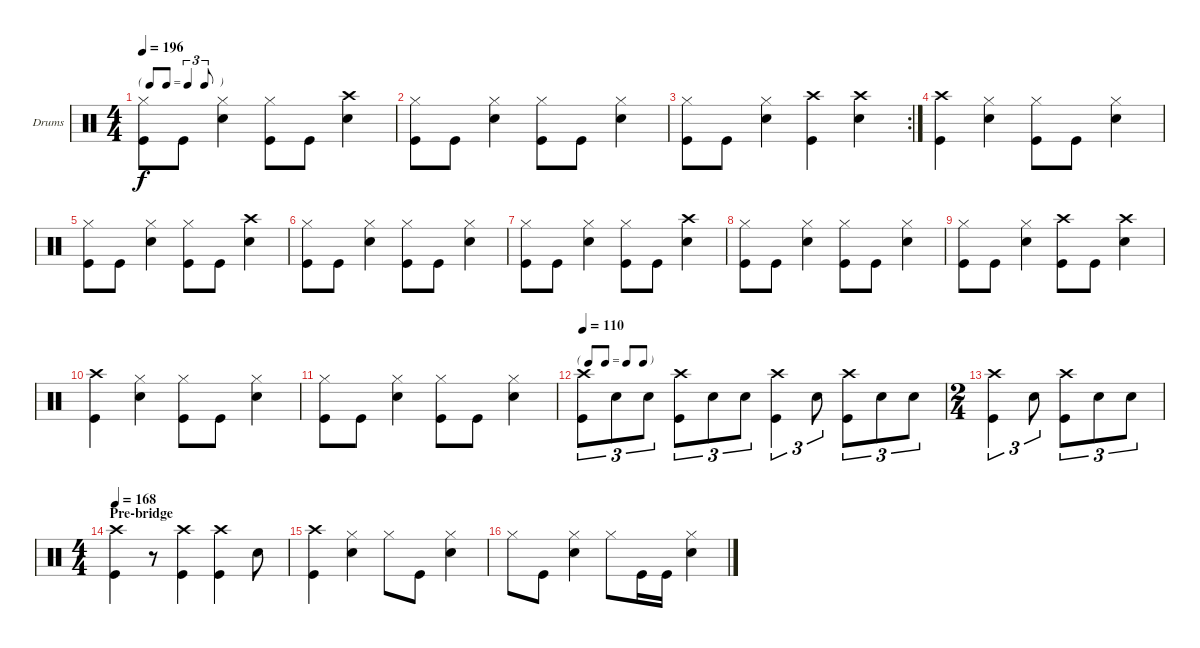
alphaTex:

\bracketExtendMode groupsimilarinstruments
\firstSystemTrackNameOrientation horizontal
\otherSystemsTrackNameOrientation horizontal
\track ("Drums" "Drums") {instrument percussion}
\staff {score}
\articulation defaults
\ts (4 4)
\tf triplet8th
\tempo 196
\clef neutral
\ks c
("Hi-Hat (closed)" "Kick (hit)").8{dy f} "Kick (hit)".8 ("Snare (hit) 2" "Hi-Hat (closed)").4 ("Hi-Hat (closed)" "Kick (hit)").8 "Kick (hit)".8 ("Crash high (hit)" "Snare (hit) 2").4 |
("Hi-Hat (closed)" "Kick (hit)").8 "Kick (hit)".8 ("Snare (hit) 2" "Hi-Hat (closed)").4 ("Hi-Hat (closed)" "Kick (hit)").8 "Kick (hit)".8 ("Snare (hit) 2" "Hi-Hat (closed)").4 |
\rc 2
("Hi-Hat (closed)" "Kick (hit)").8 "Kick (hit)".8 ("Snare (hit) 2" "Hi-Hat (closed)").4 ("Crash high (hit)" "Kick (hit)").4 ("Crash high (hit)" "Snare (hit) 2").4 |
("Kick (hit)" "Crash high (hit)").4 ("Hi-Hat (closed)" "Snare (hit) 2").4 ("Kick (hit)" "Hi-Hat (closed)").8 "Kick (hit)".8 ("Hi-Hat (closed)" "Snare (hit) 2").4 |
("Hi-Hat (closed)" "Kick (hit)").8 "Kick (hit)".8 ("Snare (hit) 2" "Hi-Hat (closed)").4 ("Hi-Hat (closed)" "Kick (hit)").8 "Kick (hit)".8 ("Crash high (hit)" "Snare (hit) 2").4 |
("Hi-Hat (closed)" "Kick (hit)").8 "Kick (hit)".8 ("Snare (hit) 2" "Hi-Hat (closed)").4 ("Hi-Hat (closed)" "Kick (hit)").8 "Kick (hit)".8 ("Snare (hit) 2" "Hi-Hat (closed)").4 |
("Hi-Hat (closed)" "Kick (hit)").8 "Kick (hit)".8 ("Snare (hit) 2" "Hi-Hat (closed)").4 ("Hi-Hat (closed)" "Kick (hit)").8 "Kick (hit)".8 ("Crash high (hit)" "Snare (hit) 2").4 |
("Hi-Hat (closed)" "Kick (hit)").8 "Kick (hit)".8 ("Snare (hit) 2" "Hi-Hat (closed)").4 ("Hi-Hat (closed)" "Kick (hit)").8 "Kick (hit)".8 ("Snare (hit) 2" "Hi-Hat (closed)").4 |
("Hi-Hat (closed)" "Kick (hit)").8 "Kick (hit)".8 ("Snare (hit) 2" "Hi-Hat (closed)").4 ("Crash high (hit)" "Kick (hit)").8 "Kick (hit)".8 ("Snare (hit) 2" "Crash high (hit)").4 |
("Crash high (hit)" "Kick (hit)").4 ("Hi-Hat (closed)" "Snare (hit) 2").4 ("Hi-Hat (closed)" "Kick (hit)").8 "Kick (hit)".8 ("Snare (hit) 2" "Hi-Hat (closed)").4 |
("Hi-Hat (closed)" "Kick (hit)").8 "Kick (hit)".8 ("Snare (hit) 2" "Hi-Hat (closed)").4 ("Hi-Hat (closed)" "Kick (hit)").8 "Kick (hit)".8 ("Snare (hit) 2" "Hi-Hat (closed)").4 |
\tf none
\tempo 110
("Crash high (hit)" "Kick (hit)").8{tu (3 2)} "Snare (hit) 2".8{tu (3 2)} "Snare (hit) 2".8{tu (3 2)} ("Crash high (hit)" "Kick (hit)").8{tu (3 2)} "Snare (hit) 2".8{tu (3 2)} "Snare (hit) 2".8{tu (3 2)} ("Crash high (hit)" "Kick (hit)").4{tu (3 2)} "Snare (hit) 2".8{tu (3 2)} ("Crash high (hit)" "Kick (hit)").8{tu (3 2)} "Snare (hit) 2".8{tu (3 2)} "Snare (hit) 2".8{tu (3 2)} |
\ts (2 4)
("Crash high (hit)" "Kick (hit)").4{tu (3 2)} "Snare (hit) 2".8{tu (3 2)} ("Kick (hit)" "Crash high (hit)").8{tu (3 2)} "Snare (hit) 2".8{tu (3 2)} "Snare (hit) 2".8{tu (3 2)} |
\ts (4 4)
\section ("" "Pre-bridge")
\tempo 168
("Crash high (hit)" "Kick (hit)").4 r.8 ("Kick (hit)" "Crash high (hit)").4 ("Crash high (hit)" "Kick (hit)").4 "Snare (hit) 2".8 |
("Kick (hit)" "Crash high (hit)").4 ("Hi-Hat (closed)" "Snare (hit) 2").4 "Hi-Hat (closed)".8 "Kick (hit)".8 ("Snare (hit) 2" "Hi-Hat (closed)").4 |
"Hi-Hat (closed)".8 "Kick (hit)".8 ("Snare (hit) 2" "Hi-Hat (closed)").4 "Hi-Hat (closed)".8 "Kick (hit)".16 "Kick (hit)".16 ("Snare (hit) 2" "Hi-Hat (closed)").4
